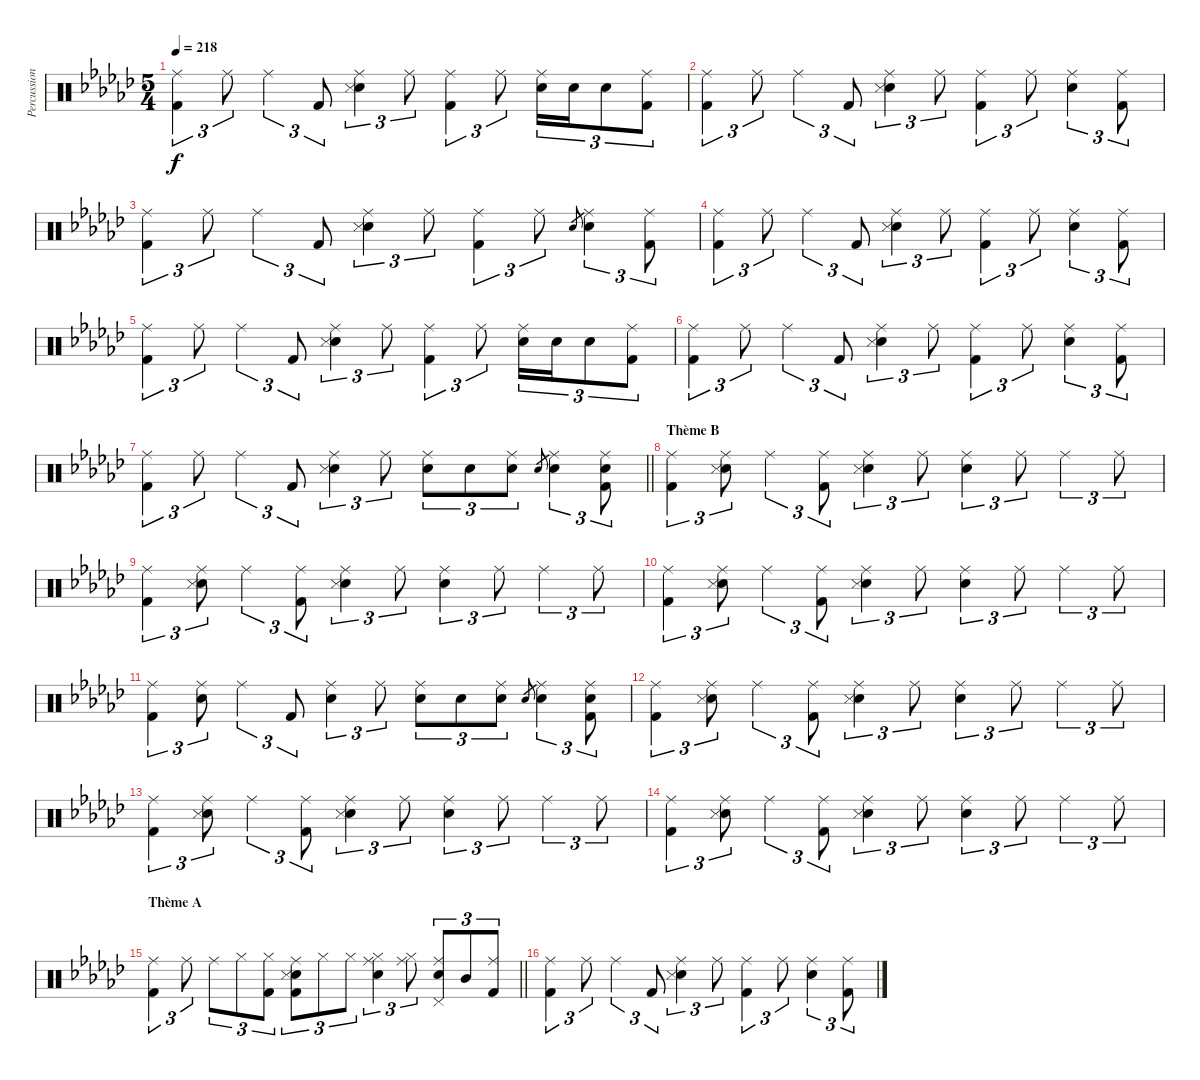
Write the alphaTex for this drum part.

\track ("Percussions" "Percussion") {instrument percussion}
\staff {score}
\articulation defaults
\ts (5 4)
\tempo 218
\clef neutral
\ks ebminor
("Ride (middle)" "Kick (hit) 2").4{tu (3 2) dy f} "Ride (middle)".8{tu (3 2)} "Ride (middle)".4{tu (3 2)} "Kick (hit) 2".8{tu (3 2)} ("Ride (middle)" "Snare (hit) 2" "Snare (side stick) 3").4{tu (3 2)} "Ride (middle)".8{tu (3 2)} ("Ride (middle)" "Kick (hit) 2").4{tu (3 2)} "Ride (middle)".8{tu (3 2)} ("Ride (middle)" "Snare (hit) 2").16{tu (3 2)} "Snare (hit) 2".16{tu (3 2)} "Snare (hit) 2".8{tu (3 2)} ("Ride (middle)" "Kick (hit) 2").8{tu (3 2)} |
("Ride (middle)" "Kick (hit) 2").4{tu (3 2)} "Ride (middle)".8{tu (3 2)} "Ride (middle)".4{tu (3 2)} "Kick (hit) 2".8{tu (3 2)} ("Ride (middle)" "Snare (hit) 2" "Snare (side stick) 3").4{tu (3 2)} "Ride (middle)".8{tu (3 2)} ("Ride (middle)" "Kick (hit) 2").4{tu (3 2)} "Ride (middle)".8{tu (3 2)} ("Ride (middle)" "Snare (hit) 2").4{tu (3 2)} ("Ride (middle)" "Kick (hit) 2").8{tu (3 2)} |
("Ride (middle)" "Kick (hit) 2").4{tu (3 2)} "Ride (middle)".8{tu (3 2)} "Ride (middle)".4{tu (3 2)} "Kick (hit) 2".8{tu (3 2)} ("Ride (middle)" "Snare (hit) 2" "Snare (side stick) 3").4{tu (3 2)} "Ride (middle)".8{tu (3 2)} ("Ride (middle)" "Kick (hit) 2").4{tu (3 2)} "Ride (middle)".8{tu (3 2)} "Snare (hit) 2".8{gr} ("Ride (middle)" "Snare (hit) 2").4{tu (3 2)} ("Ride (middle)" "Kick (hit) 2").8{tu (3 2)} |
("Ride (middle)" "Kick (hit) 2").4{tu (3 2)} "Ride (middle)".8{tu (3 2)} "Ride (middle)".4{tu (3 2)} "Kick (hit) 2".8{tu (3 2)} ("Ride (middle)" "Snare (hit) 2" "Snare (side stick) 3").4{tu (3 2)} "Ride (middle)".8{tu (3 2)} ("Ride (middle)" "Kick (hit) 2").4{tu (3 2)} "Ride (middle)".8{tu (3 2)} ("Ride (middle)" "Snare (hit) 2").4{tu (3 2)} ("Ride (middle)" "Kick (hit) 2").8{tu (3 2)} |
("Ride (middle)" "Kick (hit) 2").4{tu (3 2)} "Ride (middle)".8{tu (3 2)} "Ride (middle)".4{tu (3 2)} "Kick (hit) 2".8{tu (3 2)} ("Ride (middle)" "Snare (hit) 2" "Snare (side stick) 3").4{tu (3 2)} "Ride (middle)".8{tu (3 2)} ("Ride (middle)" "Kick (hit) 2").4{tu (3 2)} "Ride (middle)".8{tu (3 2)} ("Ride (middle)" "Snare (hit) 2").16{tu (3 2)} "Snare (hit) 2".16{tu (3 2)} "Snare (hit) 2".8{tu (3 2)} ("Ride (middle)" "Kick (hit) 2").8{tu (3 2)} |
("Ride (middle)" "Kick (hit) 2").4{tu (3 2)} "Ride (middle)".8{tu (3 2)} "Ride (middle)".4{tu (3 2)} "Kick (hit) 2".8{tu (3 2)} ("Ride (middle)" "Snare (hit) 2" "Snare (side stick) 3").4{tu (3 2)} "Ride (middle)".8{tu (3 2)} ("Ride (middle)" "Kick (hit) 2").4{tu (3 2)} "Ride (middle)".8{tu (3 2)} ("Ride (middle)" "Snare (hit) 2").4{tu (3 2)} ("Ride (middle)" "Kick (hit) 2").8{tu (3 2)} |
\barLineRight lightlight
("Ride (middle)" "Kick (hit) 2").4{tu (3 2)} "Ride (middle)".8{tu (3 2)} "Ride (middle)".4{tu (3 2)} "Kick (hit) 2".8{tu (3 2)} ("Ride (middle)" "Snare (hit) 2" "Snare (side stick) 3").4{tu (3 2)} "Ride (middle)".8{tu (3 2)} ("Ride (middle)" "Snare (hit) 2").8{tu (3 2)} "Snare (hit) 2".8{tu (3 2)} ("Ride (middle)" "Snare (hit) 2").8{tu (3 2)} "Snare (hit) 2".8{gr} ("Ride (middle)" "Snare (hit) 2").4{tu (3 2)} ("Ride (middle)" "Snare (hit) 2" "Kick (hit) 2").8{tu (3 2)} |
\section ("" "Thème B")
("Ride (middle)" "Kick (hit) 2").4{tu (3 2) volume 15 balance 8} ("Ride (middle)" "Snare (hit) 2" "Snare (side stick) 3").8{tu (3 2)} "Ride (middle)".4{tu (3 2)} ("Ride (middle)" "Kick (hit) 2").8{tu (3 2)} ("Ride (middle)" "Snare (hit) 2" "Snare (side stick) 3").4{tu (3 2)} "Ride (middle)".8{tu (3 2)} ("Ride (middle)" "Snare (hit) 2").4{tu (3 2)} "Ride (middle)".8{tu (3 2)} "Ride (middle)".4{tu (3 2)} "Ride (middle)".8{tu (3 2)} |
("Ride (middle)" "Kick (hit) 2").4{tu (3 2)} ("Ride (middle)" "Snare (hit) 2" "Snare (side stick) 3").8{tu (3 2)} "Ride (middle)".4{tu (3 2)} ("Ride (middle)" "Kick (hit) 2").8{tu (3 2)} ("Ride (middle)" "Snare (hit) 2" "Snare (side stick) 3").4{tu (3 2)} "Ride (middle)".8{tu (3 2)} ("Ride (middle)" "Snare (hit) 2").4{tu (3 2)} "Ride (middle)".8{tu (3 2)} "Ride (middle)".4{tu (3 2)} "Ride (middle)".8{tu (3 2)} |
("Ride (middle)" "Kick (hit) 2").4{tu (3 2)} ("Ride (middle)" "Snare (hit) 2" "Snare (side stick) 3").8{tu (3 2)} "Ride (middle)".4{tu (3 2)} ("Ride (middle)" "Kick (hit) 2").8{tu (3 2)} ("Ride (middle)" "Snare (hit) 2" "Snare (side stick) 3").4{tu (3 2)} "Ride (middle)".8{tu (3 2)} ("Ride (middle)" "Snare (hit) 2").4{tu (3 2)} "Ride (middle)".8{tu (3 2)} "Ride (middle)".4{tu (3 2)} "Ride (middle)".8{tu (3 2)} |
("Ride (middle)" "Kick (hit) 2").4{tu (3 2)} ("Ride (middle)" "Snare (hit) 2").8{tu (3 2)} "Ride (middle)".4{tu (3 2)} "Kick (hit) 2".8{tu (3 2)} ("Ride (middle)" "Snare (hit) 2").4{tu (3 2)} "Ride (middle)".8{tu (3 2)} ("Ride (middle)" "Snare (hit) 2").8{tu (3 2)} "Snare (hit) 2".8{tu (3 2)} ("Ride (middle)" "Snare (hit) 2").8{tu (3 2)} "Snare (hit) 2".8{gr} ("Ride (middle)" "Snare (hit) 2").4{tu (3 2)} ("Ride (middle)" "Snare (hit) 2" "Kick (hit) 2").8{tu (3 2)} |
("Ride (middle)" "Kick (hit) 2").4{tu (3 2)} ("Ride (middle)" "Snare (hit) 2" "Snare (side stick) 3").8{tu (3 2)} "Ride (middle)".4{tu (3 2)} ("Ride (middle)" "Kick (hit) 2").8{tu (3 2)} ("Ride (middle)" "Snare (hit) 2" "Snare (side stick) 3").4{tu (3 2)} "Ride (middle)".8{tu (3 2)} ("Ride (middle)" "Snare (hit) 2").4{tu (3 2)} "Ride (middle)".8{tu (3 2)} "Ride (middle)".4{tu (3 2)} "Ride (middle)".8{tu (3 2)} |
("Ride (middle)" "Kick (hit) 2").4{tu (3 2)} ("Ride (middle)" "Snare (hit) 2" "Snare (side stick) 3").8{tu (3 2)} "Ride (middle)".4{tu (3 2)} ("Ride (middle)" "Kick (hit) 2").8{tu (3 2)} ("Ride (middle)" "Snare (hit) 2" "Snare (side stick) 3").4{tu (3 2)} "Ride (middle)".8{tu (3 2)} ("Ride (middle)" "Snare (hit) 2").4{tu (3 2)} "Ride (middle)".8{tu (3 2)} "Ride (middle)".4{tu (3 2)} "Ride (middle)".8{tu (3 2)} |
("Ride (middle)" "Kick (hit) 2").4{tu (3 2)} ("Ride (middle)" "Snare (hit) 2" "Snare (side stick) 3").8{tu (3 2)} "Ride (middle)".4{tu (3 2)} ("Ride (middle)" "Kick (hit) 2").8{tu (3 2)} ("Ride (middle)" "Snare (hit) 2" "Snare (side stick) 3").4{tu (3 2)} "Ride (middle)".8{tu (3 2)} ("Ride (middle)" "Snare (hit) 2").4{tu (3 2)} "Ride (middle)".8{tu (3 2)} "Ride (middle)".4{tu (3 2)} "Ride (middle)".8{tu (3 2)} |
\section ("" "Thème A")
\barLineRight lightlight
("Ride (middle)" "Kick (hit) 2").4{tu (3 2)} "Ride (middle)".8{tu (3 2)} "Ride (middle)".8{tu (3 2)} "Hi-Hat (closed)".8{tu (3 2)} ("Hi-Hat (closed)" "Kick (hit) 2").8{tu (3 2)} ("Ride (middle)" "Snare (hit) 2" "Snare (side stick) 3" "Kick (hit) 2").8{tu (3 2)} "Hi-Hat (closed)".8{tu (3 2)} "Hi-Hat (closed)".8{tu (3 2)} ("Ride (middle)" "Hi-Hat (closed)" "Snare (hit) 2").4{tu (3 2)} ("Ride (middle)" "Hi-Hat (closed)").8{tu (3 2)} ("Ride (middle)" "Pedal Hi-Hat (hit)" "Snare (hit) 2").8{tu (3 2)} "Mid Tom (hit)".8{tu (3 2)} ("Ride (middle)" "Kick (hit) 2").8{tu (3 2)} |
("Ride (middle)" "Kick (hit) 2").4{tu (3 2) volume 14 balance 8} "Ride (middle)".8{tu (3 2)} "Ride (middle)".4{tu (3 2)} "Kick (hit) 2".8{tu (3 2)} ("Ride (middle)" "Snare (hit) 2" "Snare (side stick) 3").4{tu (3 2)} "Ride (middle)".8{tu (3 2)} ("Ride (middle)" "Kick (hit) 2").4{tu (3 2)} "Ride (middle)".8{tu (3 2)} ("Ride (middle)" "Snare (hit) 2").4{tu (3 2)} ("Ride (middle)" "Kick (hit) 2").8{tu (3 2)}
